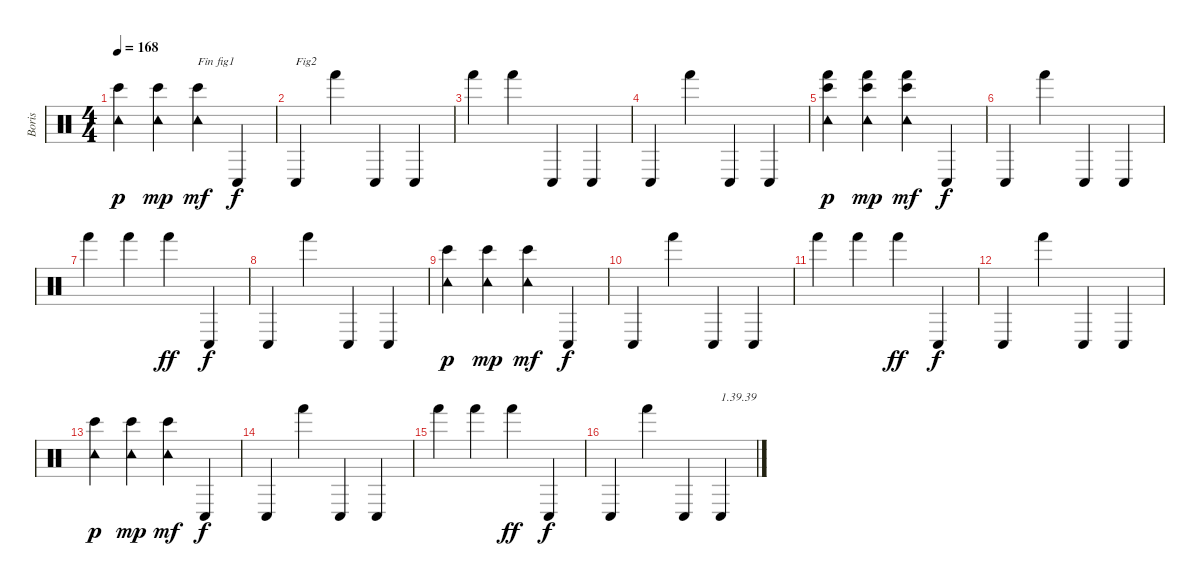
\track ("Boris" "Boris") {instrument percussion}
\staff {score}
\articulation defaults
\ts (4 4)
\tempo 168
\clef neutral
\ks c
("Tambourine (hit)" "Bongo High (hit)").4{dy p} ("Tambourine (hit)" "Bongo High (hit)").4{dy mp} ("Tambourine (hit)" "Bongo High (hit)").4{txt "Fin fig1" dy mf} "Conga low (hit)".4{dy f} |
"Conga low (hit)".4{txt "Fig2"} "Hand (hit)".4 "Conga low (hit)".4 "Conga low (hit)".4 |
"Hand (hit)".4 "Hand (hit)".4 "Conga low (hit)".4 "Conga low (hit)".4 |
"Conga low (hit)".4 "Hand (hit)".4 "Conga low (hit)".4 "Conga low (hit)".4 |
("Hand (hit)" "Tambourine (hit)" "Bongo High (hit)").4{dy p} ("Hand (hit)" "Tambourine (hit)" "Bongo High (hit)").4{dy mp} ("Hand (hit)" "Tambourine (hit)" "Bongo High (hit)").4{dy mf} "Conga low (hit)".4{dy f} |
"Conga low (hit)".4 "Hand (hit)".4 "Conga low (hit)".4 "Conga low (hit)".4 |
"Hand (hit)".4 "Hand (hit)".4 "Hand (hit)".4{dy ff} "Conga low (hit)".4{dy f} |
"Conga low (hit)".4 "Hand (hit)".4 "Conga low (hit)".4 "Conga low (hit)".4 |
("Tambourine (hit)" "Bongo High (hit)").4{dy p} ("Tambourine (hit)" "Bongo High (hit)").4{dy mp} ("Tambourine (hit)" "Bongo High (hit)").4{dy mf} "Conga low (hit)".4{dy f} |
"Conga low (hit)".4 "Hand (hit)".4 "Conga low (hit)".4 "Conga low (hit)".4 |
"Hand (hit)".4 "Hand (hit)".4 "Hand (hit)".4{dy ff} "Conga low (hit)".4{dy f} |
"Conga low (hit)".4 "Hand (hit)".4 "Conga low (hit)".4 "Conga low (hit)".4 |
("Tambourine (hit)" "Bongo High (hit)").4{dy p} ("Tambourine (hit)" "Bongo High (hit)").4{dy mp} ("Tambourine (hit)" "Bongo High (hit)").4{dy mf} "Conga low (hit)".4{dy f} |
"Conga low (hit)".4 "Hand (hit)".4 "Conga low (hit)".4 "Conga low (hit)".4 |
"Hand (hit)".4 "Hand (hit)".4 "Hand (hit)".4{dy ff} "Conga low (hit)".4{dy f} |
"Conga low (hit)".4 "Hand (hit)".4 "Conga low (hit)".4 "Conga low (hit)".4{txt "1.39.39"}
